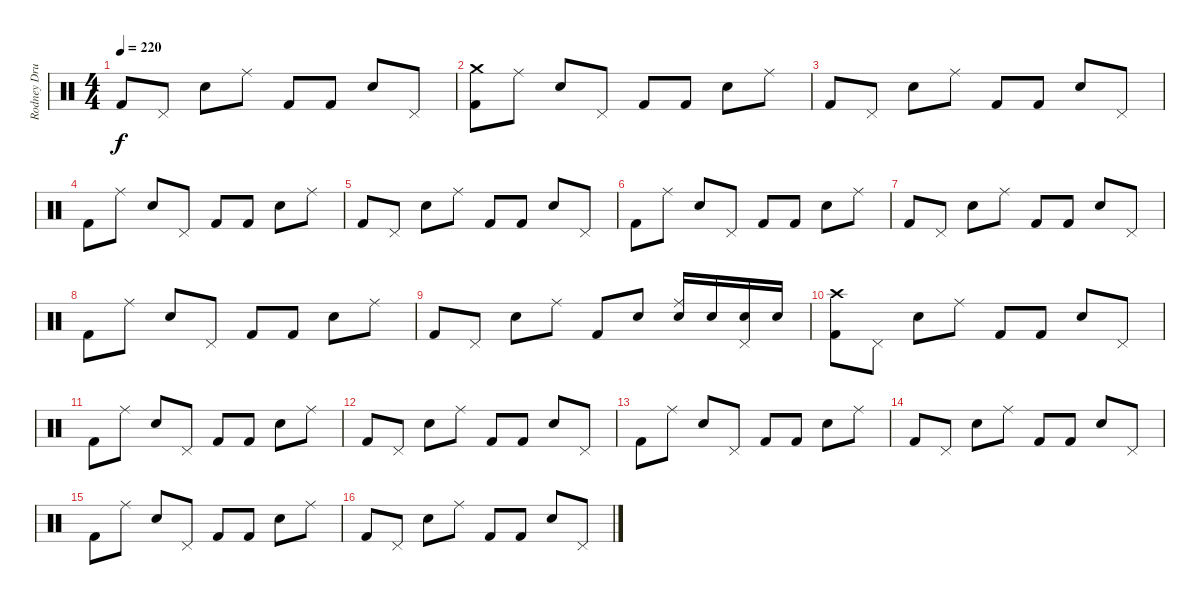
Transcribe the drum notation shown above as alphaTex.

\track ("Rodney Drums" "Rodney Dru") {instrument percussion}
\staff {score}
\articulation defaults
\ts (4 4)
\tempo 220
\clef neutral
\ks c "Kick (hit) 2".8{dy f} "Pedal Hi-Hat (hit)".8 "Electric Snare (hit)".8 "Ride (middle)".8 "Kick (hit) 2".8 "Kick (hit) 2".8 "Electric Snare (hit)".8 "Pedal Hi-Hat (hit)".8
|
("Crash medium (hit)" "Kick (hit) 2").8 "Ride (middle)".8 "Electric Snare (hit)".8 "Pedal Hi-Hat (hit)".8 "Kick (hit) 2".8 "Kick (hit) 2".8 "Electric Snare (hit)".8 "Ride (middle)".8 |
"Kick (hit) 2".8 "Pedal Hi-Hat (hit)".8 "Electric Snare (hit)".8 "Ride (middle)".8 "Kick (hit) 2".8 "Kick (hit) 2".8 "Electric Snare (hit)".8 "Pedal Hi-Hat (hit)".8 |
"Kick (hit) 2".8 "Ride (middle)".8 "Electric Snare (hit)".8 "Pedal Hi-Hat (hit)".8 "Kick (hit) 2".8 "Kick (hit) 2".8 "Electric Snare (hit)".8 "Ride (middle)".8 |
"Kick (hit) 2".8 "Pedal Hi-Hat (hit)".8 "Electric Snare (hit)".8 "Ride (middle)".8 "Kick (hit) 2".8 "Kick (hit) 2".8 "Electric Snare (hit)".8 "Pedal Hi-Hat (hit)".8 |
"Kick (hit) 2".8 "Ride (middle)".8 "Electric Snare (hit)".8 "Pedal Hi-Hat (hit)".8 "Kick (hit) 2".8 "Kick (hit) 2".8 "Electric Snare (hit)".8 "Ride (middle)".8 |
"Kick (hit) 2".8 "Pedal Hi-Hat (hit)".8 "Electric Snare (hit)".8 "Ride (middle)".8 "Kick (hit) 2".8 "Kick (hit) 2".8 "Electric Snare (hit)".8 "Pedal Hi-Hat (hit)".8 |
"Kick (hit) 2".8 "Ride (middle)".8 "Electric Snare (hit)".8 "Pedal Hi-Hat (hit)".8 "Kick (hit) 2".8 "Kick (hit) 2".8 "Electric Snare (hit)".8 "Ride (middle)".8 |
"Kick (hit) 2".8 "Pedal Hi-Hat (hit)".8 "Electric Snare (hit)".8 "Ride (middle)".8 "Kick (hit) 2".8 "Electric Snare (hit)".8 ("Ride (middle)" "Electric Snare (hit)").16 "Electric Snare (hit)".16 ("Pedal Hi-Hat (hit)" "Electric Snare (hit)").16 "Electric Snare (hit)".16 |
("Crash high (hit)" "Kick (hit) 2").8 "Pedal Hi-Hat (hit)".8 "Electric Snare (hit)".8 "Ride (middle)".8 "Kick (hit) 2".8 "Kick (hit) 2".8 "Electric Snare (hit)".8 "Pedal Hi-Hat (hit)".8 |
"Kick (hit) 2".8 "Ride (middle)".8 "Electric Snare (hit)".8 "Pedal Hi-Hat (hit)".8 "Kick (hit) 2".8 "Kick (hit) 2".8 "Electric Snare (hit)".8 "Ride (middle)".8 |
"Kick (hit) 2".8 "Pedal Hi-Hat (hit)".8 "Electric Snare (hit)".8 "Ride (middle)".8 "Kick (hit) 2".8 "Kick (hit) 2".8 "Electric Snare (hit)".8 "Pedal Hi-Hat (hit)".8 |
"Kick (hit) 2".8 "Ride (middle)".8 "Electric Snare (hit)".8 "Pedal Hi-Hat (hit)".8 "Kick (hit) 2".8 "Kick (hit) 2".8 "Electric Snare (hit)".8 "Ride (middle)".8 |
"Kick (hit) 2".8 "Pedal Hi-Hat (hit)".8 "Electric Snare (hit)".8 "Ride (middle)".8 "Kick (hit) 2".8 "Kick (hit) 2".8 "Electric Snare (hit)".8 "Pedal Hi-Hat (hit)".8 |
"Kick (hit) 2".8 "Ride (middle)".8 "Electric Snare (hit)".8 "Pedal Hi-Hat (hit)".8 "Kick (hit) 2".8 "Kick (hit) 2".8 "Electric Snare (hit)".8 "Ride (middle)".8 |
"Kick (hit) 2".8 "Pedal Hi-Hat (hit)".8 "Electric Snare (hit)".8 "Ride (middle)".8 "Kick (hit) 2".8 "Kick (hit) 2".8 "Electric Snare (hit)".8 "Pedal Hi-Hat (hit)".8
